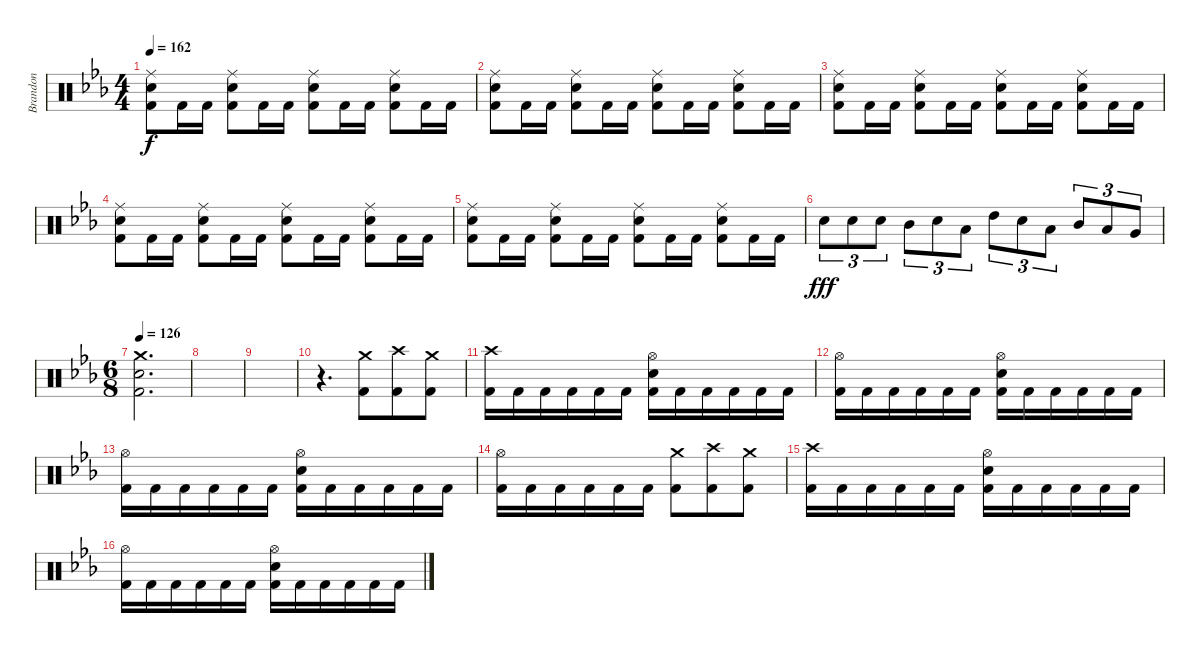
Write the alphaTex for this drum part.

\track ("Brandon" "Brandon") {instrument percussion}
\staff {score}
\articulation defaults
\ts (4 4)
\tempo 162
\clef neutral
\ks cminor
("Ride (middle)" "Electric Snare (hit)" "Kick (hit) 2").8{dy f} "Kick (hit) 2".16 "Kick (hit) 2".16 ("Ride (middle)" "Electric Snare (hit)" "Kick (hit) 2").8 "Kick (hit) 2".16 "Kick (hit) 2".16 ("Ride (middle)" "Electric Snare (hit)" "Kick (hit) 2").8 "Kick (hit) 2".16 "Kick (hit) 2".16 ("Ride (middle)" "Electric Snare (hit)" "Kick (hit) 2").8 "Kick (hit) 2".16 "Kick (hit) 2".16 |
("Ride (middle)" "Electric Snare (hit)" "Kick (hit) 2").8 "Kick (hit) 2".16 "Kick (hit) 2".16 ("Ride (middle)" "Electric Snare (hit)" "Kick (hit) 2").8 "Kick (hit) 2".16 "Kick (hit) 2".16 ("Ride (middle)" "Electric Snare (hit)" "Kick (hit) 2").8 "Kick (hit) 2".16 "Kick (hit) 2".16 ("Ride (middle)" "Electric Snare (hit)" "Kick (hit) 2").8 "Kick (hit) 2".16 "Kick (hit) 2".16 |
("Ride (middle)" "Electric Snare (hit)" "Kick (hit) 2").8 "Kick (hit) 2".16 "Kick (hit) 2".16 ("Ride (middle)" "Electric Snare (hit)" "Kick (hit) 2").8 "Kick (hit) 2".16 "Kick (hit) 2".16 ("Ride (middle)" "Electric Snare (hit)" "Kick (hit) 2").8 "Kick (hit) 2".16 "Kick (hit) 2".16 ("Ride (middle)" "Electric Snare (hit)" "Kick (hit) 2").8 "Kick (hit) 2".16 "Kick (hit) 2".16 |
("Ride (middle)" "Electric Snare (hit)" "Kick (hit) 2").8 "Kick (hit) 2".16 "Kick (hit) 2".16 ("Ride (middle)" "Electric Snare (hit)" "Kick (hit) 2").8 "Kick (hit) 2".16 "Kick (hit) 2".16 ("Ride (middle)" "Electric Snare (hit)" "Kick (hit) 2").8 "Kick (hit) 2".16 "Kick (hit) 2".16 ("Ride (middle)" "Electric Snare (hit)" "Kick (hit) 2").8 "Kick (hit) 2".16 "Kick (hit) 2".16 |
("Ride (middle)" "Electric Snare (hit)" "Kick (hit) 2").8 "Kick (hit) 2".16 "Kick (hit) 2".16 ("Ride (middle)" "Electric Snare (hit)" "Kick (hit) 2").8 "Kick (hit) 2".16 "Kick (hit) 2".16 ("Ride (middle)" "Electric Snare (hit)" "Kick (hit) 2").8 "Kick (hit) 2".16 "Kick (hit) 2".16 ("Ride (middle)" "Electric Snare (hit)" "Kick (hit) 2").8 "Kick (hit) 2".16 "Kick (hit) 2".16 |
"Electric Snare (hit)".8{tu (3 2) dy fff} "Electric Snare (hit)".8{tu (3 2)} "Electric Snare (hit)".8{tu (3 2)} "Mid Tom (hit)".8{tu (3 2)} "Electric Snare (hit)".8{tu (3 2)} "Low Tom (hit)".8{tu (3 2)} "High Tom (hit)".8{tu (3 2)} "Electric Snare (hit)".8{tu (3 2)} "Low Tom (hit)".8{tu (3 2)} "Mid Tom (hit)".8{tu (3 2)} "Low Tom (hit)".8{tu (3 2)} "Very Low Tom (hit)".8{tu (3 2)} |
\ts (6 8)
\tempo 126
("Crash medium (hit)" "Electric Snare (hit)" "Kick (hit) 2").2{d} |
|
|
r.4{d} ("Crash medium (hit)" "Kick (hit) 2").8 ("Crash high (hit)" "Kick (hit) 2").8 ("Crash medium (hit)" "Kick (hit) 2").8 |
("Crash high (hit)" "Kick (hit) 2").16 "Kick (hit) 2".16 "Kick (hit) 2".16 "Kick (hit) 2".16 "Kick (hit) 2".16 "Kick (hit) 2".16 ("Hi-Hat (open)" "Electric Snare (hit)" "Kick (hit) 2").16 "Kick (hit) 2".16 "Kick (hit) 2".16 "Kick (hit) 2".16 "Kick (hit) 2".16 "Kick (hit) 2".16 |
("Hi-Hat (open)" "Kick (hit) 2").16 "Kick (hit) 2".16 "Kick (hit) 2".16 "Kick (hit) 2".16 "Kick (hit) 2".16 "Kick (hit) 2".16 ("Hi-Hat (open)" "Electric Snare (hit)" "Kick (hit) 2").16 "Kick (hit) 2".16 "Kick (hit) 2".16 "Kick (hit) 2".16 "Kick (hit) 2".16 "Kick (hit) 2".16 |
("Hi-Hat (open)" "Kick (hit) 2").16 "Kick (hit) 2".16 "Kick (hit) 2".16 "Kick (hit) 2".16 "Kick (hit) 2".16 "Kick (hit) 2".16 ("Hi-Hat (open)" "Electric Snare (hit)" "Kick (hit) 2").16 "Kick (hit) 2".16 "Kick (hit) 2".16 "Kick (hit) 2".16 "Kick (hit) 2".16 "Kick (hit) 2".16 |
("Hi-Hat (open)" "Kick (hit) 2").16 "Kick (hit) 2".16 "Kick (hit) 2".16 "Kick (hit) 2".16 "Kick (hit) 2".16 "Kick (hit) 2".16 ("Crash medium (hit)" "Kick (hit) 2").8 ("Crash high (hit)" "Kick (hit) 2").8 ("Crash medium (hit)" "Kick (hit) 2").8 |
("Crash high (hit)" "Kick (hit) 2").16 "Kick (hit) 2".16 "Kick (hit) 2".16 "Kick (hit) 2".16 "Kick (hit) 2".16 "Kick (hit) 2".16 ("Hi-Hat (open)" "Electric Snare (hit)" "Kick (hit) 2").16 "Kick (hit) 2".16 "Kick (hit) 2".16 "Kick (hit) 2".16 "Kick (hit) 2".16 "Kick (hit) 2".16 |
("Hi-Hat (open)" "Kick (hit) 2").16 "Kick (hit) 2".16 "Kick (hit) 2".16 "Kick (hit) 2".16 "Kick (hit) 2".16 "Kick (hit) 2".16 ("Hi-Hat (open)" "Electric Snare (hit)" "Kick (hit) 2").16 "Kick (hit) 2".16 "Kick (hit) 2".16 "Kick (hit) 2".16 "Kick (hit) 2".16 "Kick (hit) 2".16
